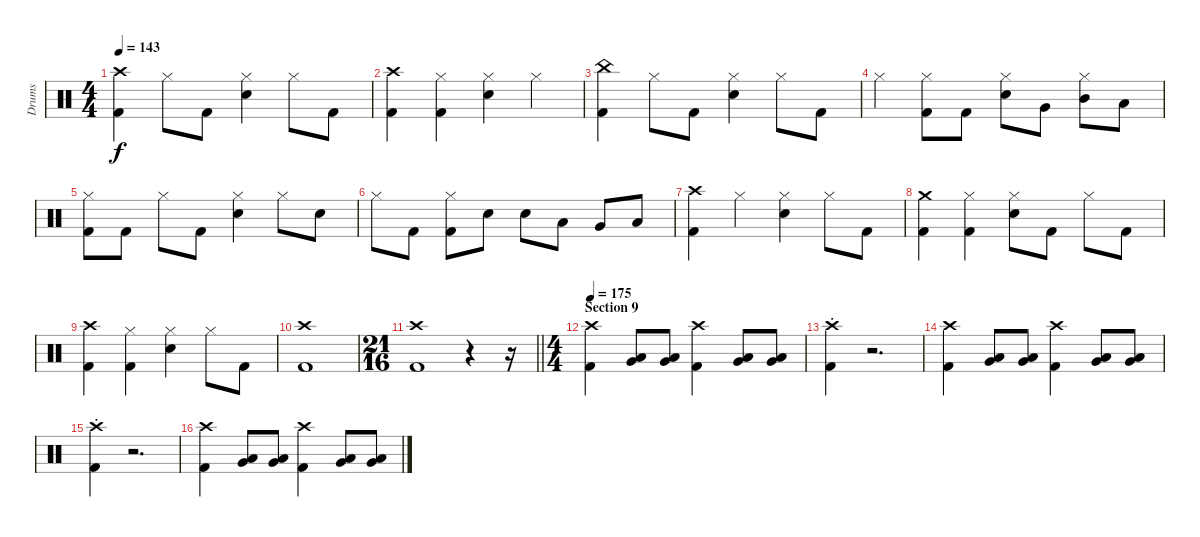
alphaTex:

\track ("Drums" "Drums") {instrument percussion}
\staff {score}
\articulation defaults
\ts (4 4)
\tempo 143
\clef neutral
\ks c
("Crash high (hit)" "Kick (hit) 2").4{dy f} "Hi-Hat (closed)".8 "Kick (hit) 2".8 ("Hi-Hat (closed)" "Snare (hit) 2").4 "Hi-Hat (closed)".8 "Kick (hit) 2".8 |
("Crash high (hit)" "Kick (hit) 2").4 ("Hi-Hat (closed)" "Kick (hit) 2").4 ("Hi-Hat (closed)" "Snare (hit) 2").4 "Hi-Hat (closed)".4 |
("China (hit)" "Kick (hit) 2").4 "Hi-Hat (closed)".8 "Kick (hit) 2".8 ("Hi-Hat (closed)" "Snare (hit) 2").4 "Hi-Hat (closed)".8 "Kick (hit) 2".8 |
"Hi-Hat (closed)".4 ("Hi-Hat (closed)" "Kick (hit) 2").8 "Kick (hit) 2".8 ("Hi-Hat (closed)" "Snare (hit) 2").8 "Very Low Tom (hit)".8 ("Hi-Hat (closed)" "Mid Tom (hit)").8 "Low Tom (hit)".8 |
("Hi-Hat (closed)" "Kick (hit) 2").8 "Kick (hit) 2".8 "Hi-Hat (closed)".8 "Kick (hit) 2".8 ("Hi-Hat (closed)" "Snare (hit) 2").4 "Hi-Hat (closed)".8 "Snare (hit) 2".8 |
"Hi-Hat (closed)".8 "Kick (hit) 2".8 ("Hi-Hat (closed)" "Kick (hit) 2").8 "Snare (hit) 2".8 "Snare (hit) 2".8 "Low Tom (hit)".8 "Very Low Tom (hit)".8 "Low Floor Tom (hit)".8 |
("Crash high (hit)" "Kick (hit) 2").4 "Hi-Hat (closed)".4 ("Hi-Hat (closed)" "Snare (hit) 2").4 "Hi-Hat (closed)".8 "Kick (hit) 2".8 |
("Crash medium (hit)" "Kick (hit) 2").4 ("Hi-Hat (closed)" "Kick (hit) 2").4 ("Hi-Hat (closed)" "Snare (hit) 2").8 "Kick (hit) 2".8 "Hi-Hat (closed)".8 "Kick (hit) 2".8 |
("Crash high (hit)" "Kick (hit) 2").4 ("Hi-Hat (closed)" "Kick (hit) 2").4 ("Hi-Hat (closed)" "Snare (hit) 2").4 "Hi-Hat (closed)".8 "Kick (hit) 2".8 |
("Crash high (hit)" "Kick (hit) 2").1 |
\ts (21 16)
\barLineRight lightlight
("Crash high (hit)" "Kick (hit) 2").1 r.4 r.16 |
\ts (4 4)
\section ("" "Section 9")
\tempo 175
("Crash high (hit)" "Kick (hit) 2").4 ("Very Low Tom (hit)" "Low Floor Tom (hit)").8 ("Very Low Tom (hit)" "Low Floor Tom (hit)").8 ("Crash high (hit)" "Kick (hit) 2").4 ("Very Low Tom (hit)" "Low Floor Tom (hit)").8 ("Very Low Tom (hit)" "Low Floor Tom (hit)").8 |
("Crash high (hit)"{st} "Kick (hit) 2"{st}).4 r.2{d} |
("Crash high (hit)" "Kick (hit) 2").4 ("Very Low Tom (hit)" "Low Floor Tom (hit)").8 ("Very Low Tom (hit)" "Low Floor Tom (hit)").8 ("Crash high (hit)" "Kick (hit) 2").4 ("Very Low Tom (hit)" "Low Floor Tom (hit)").8 ("Very Low Tom (hit)" "Low Floor Tom (hit)").8 |
("Crash high (hit)"{st} "Kick (hit) 2"{st}).4 r.2{d} |
("Crash high (hit)" "Kick (hit) 2").4 ("Very Low Tom (hit)" "Low Floor Tom (hit)").8 ("Very Low Tom (hit)" "Low Floor Tom (hit)").8 ("Crash high (hit)" "Kick (hit) 2").4 ("Very Low Tom (hit)" "Low Floor Tom (hit)").8 ("Very Low Tom (hit)" "Low Floor Tom (hit)").8
